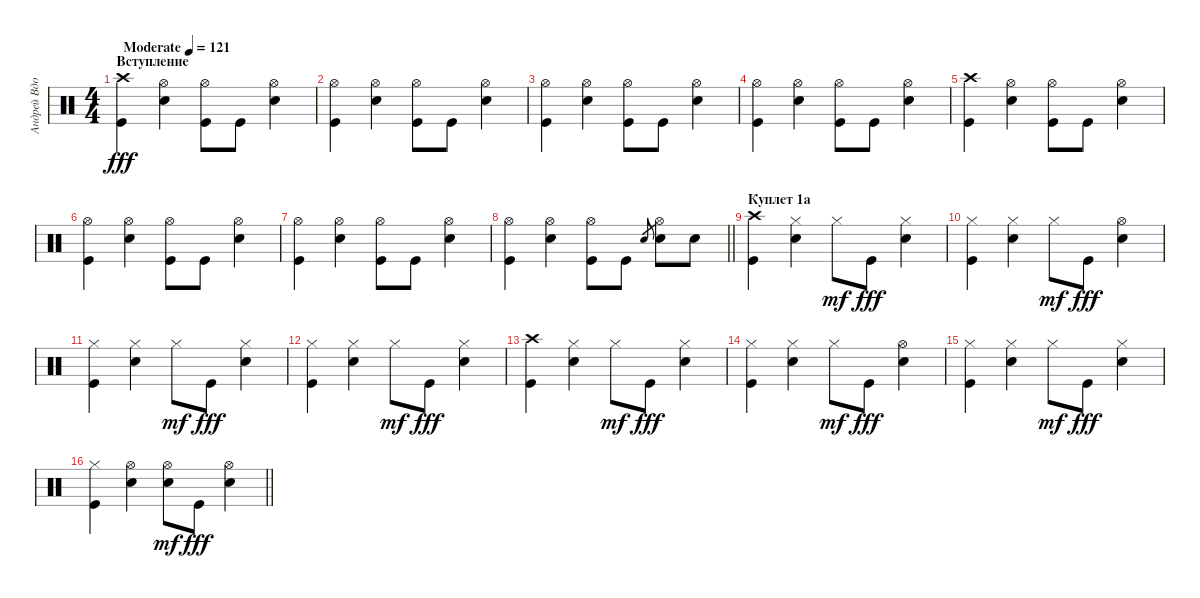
\track ("Андрей Вдовиченко" "Андрей Вдо") {instrument percussion}
\staff {score}
\articulation defaults
\ts (4 4)
\section ("" "Вступление")
\tempo (121 "Moderate")
\clef neutral
\ks c
("Crash high (hit)" "Kick (hit)").4{dy fff} ("Hi-Hat (open)" "Electric Snare (hit)").4 ("Hi-Hat (open)" "Kick (hit)").8 "Kick (hit)".8 ("Hi-Hat (open)" "Electric Snare (hit)").4 |
("Hi-Hat (open)" "Kick (hit)").4 ("Hi-Hat (open)" "Electric Snare (hit)").4 ("Hi-Hat (open)" "Kick (hit)").8 "Kick (hit)".8 ("Hi-Hat (open)" "Electric Snare (hit)").4 |
("Hi-Hat (open)" "Kick (hit)").4 ("Hi-Hat (open)" "Electric Snare (hit)").4 ("Hi-Hat (open)" "Kick (hit)").8 "Kick (hit)".8 ("Hi-Hat (open)" "Electric Snare (hit)").4 |
("Hi-Hat (open)" "Kick (hit)").4 ("Hi-Hat (open)" "Electric Snare (hit)").4 ("Hi-Hat (open)" "Kick (hit)").8 "Kick (hit)".8 ("Hi-Hat (open)" "Electric Snare (hit)").4 |
("Crash high (hit)" "Kick (hit)").4 ("Hi-Hat (open)" "Electric Snare (hit)").4 ("Hi-Hat (open)" "Kick (hit)").8 "Kick (hit)".8 ("Hi-Hat (open)" "Electric Snare (hit)").4 |
("Hi-Hat (open)" "Kick (hit)").4 ("Hi-Hat (open)" "Electric Snare (hit)").4 ("Hi-Hat (open)" "Kick (hit)").8 "Kick (hit)".8 ("Hi-Hat (open)" "Electric Snare (hit)").4 |
("Hi-Hat (open)" "Kick (hit)").4 ("Hi-Hat (open)" "Electric Snare (hit)").4 ("Hi-Hat (open)" "Kick (hit)").8 "Kick (hit)".8 ("Hi-Hat (open)" "Electric Snare (hit)").4 |
\barLineRight lightlight
("Hi-Hat (open)" "Kick (hit)").4 ("Hi-Hat (open)" "Electric Snare (hit)").4 ("Hi-Hat (open)" "Kick (hit)").8 "Kick (hit)".8 "Electric Snare (hit)".8{gr} ("Hi-Hat (open)" "Electric Snare (hit)").8 "Electric Snare (hit)".8 |
\section ("" "Куплет 1а")
("Crash high (hit)" "Kick (hit)").4 ("Hi-Hat (closed)" "Electric Snare (hit)").4 "Hi-Hat (closed)".8{dy mf} "Kick (hit)".8{dy fff} ("Hi-Hat (closed)" "Electric Snare (hit)").4 |
("Hi-Hat (closed)" "Kick (hit)").4 ("Hi-Hat (closed)" "Electric Snare (hit)").4 "Hi-Hat (closed)".8{dy mf} "Kick (hit)".8{dy fff} ("Hi-Hat (open)" "Electric Snare (hit)").4 |
("Hi-Hat (closed)" "Kick (hit)").4 ("Hi-Hat (closed)" "Electric Snare (hit)").4 "Hi-Hat (closed)".8{dy mf} "Kick (hit)".8{dy fff} ("Hi-Hat (closed)" "Electric Snare (hit)").4 |
("Hi-Hat (closed)" "Kick (hit)").4 ("Hi-Hat (closed)" "Electric Snare (hit)").4 "Hi-Hat (closed)".8{dy mf} "Kick (hit)".8{dy fff} ("Hi-Hat (closed)" "Electric Snare (hit)").4 |
("Crash high (hit)" "Kick (hit)").4 ("Hi-Hat (closed)" "Electric Snare (hit)").4 "Hi-Hat (closed)".8{dy mf} "Kick (hit)".8{dy fff} ("Hi-Hat (closed)" "Electric Snare (hit)").4 |
("Hi-Hat (closed)" "Kick (hit)").4 ("Hi-Hat (closed)" "Electric Snare (hit)").4 "Hi-Hat (closed)".8{dy mf} "Kick (hit)".8{dy fff} ("Hi-Hat (open)" "Electric Snare (hit)").4 |
("Hi-Hat (closed)" "Kick (hit)").4 ("Hi-Hat (closed)" "Electric Snare (hit)").4 "Hi-Hat (closed)".8{dy mf} "Kick (hit)".8{dy fff} ("Hi-Hat (closed)" "Electric Snare (hit)").4 |
\barLineRight lightlight
("Hi-Hat (closed)" "Kick (hit)").4 ("Hi-Hat (open)" "Electric Snare (hit)").4 ("Hi-Hat (open)" "Electric Snare (hit)").8{dy mf} "Kick (hit)".8{dy fff} ("Hi-Hat (open)" "Electric Snare (hit)").4
